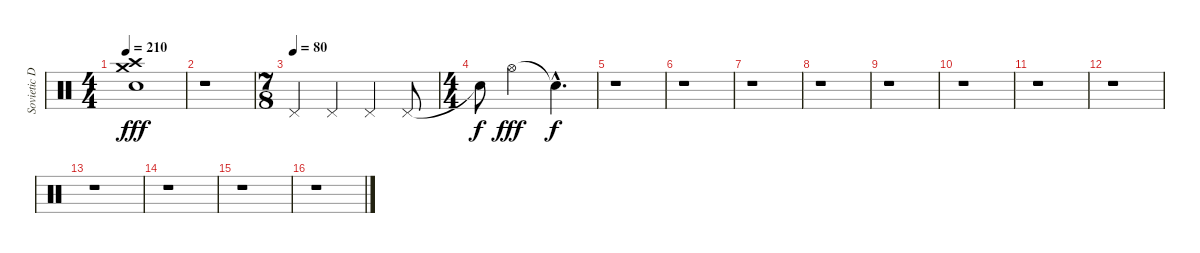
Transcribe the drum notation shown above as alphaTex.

\track ("Sovietic Drummer" "Sovietic D") {instrument percussion}
\staff {score}
\articulation defaults
\ts (4 4)
\tempo 210
\clef neutral
\ks c
("Crash high (hit)" "Electric Snare (hit)" "Crash medium (hit)").1{dy fff} |
r.1 |
\ts (7 8)
\tempo (80)
"Pedal Hi-Hat (hit)".4 "Pedal Hi-Hat (hit)".4 "Pedal Hi-Hat (hit)".4 "Pedal Hi-Hat (hit)".8 |
\ts (4 4)
"Snare (hit)"{t}.8{dy f} "Hi-Hat (open)".2{dy fff} "Snare (hit)"{hac t}.4{d dy f} |
r.1 |
r.1 |
r.1 |
r.1 |
r.1 |
r.1 |
r.1 |
r.1 |
r.1 |
r.1 |
r.1 |
r.1
